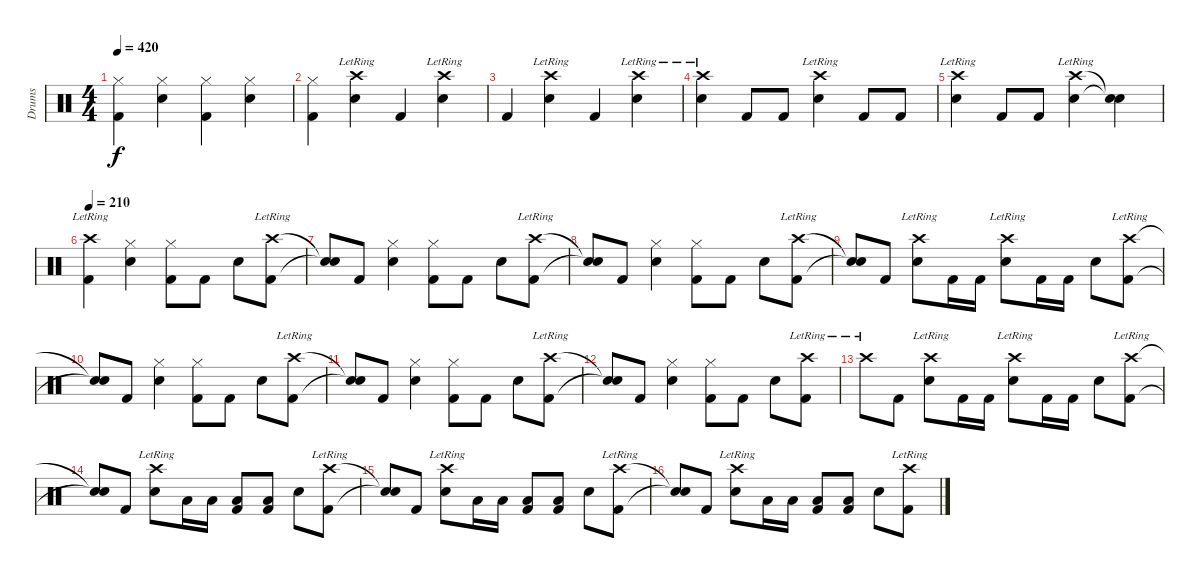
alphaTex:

\track ("Drums" "Drums") {instrument percussion}
\staff {score}
\articulation defaults
\ts (4 4)
\tempo 420
\clef neutral
\ks c
("Hi-Hat (closed)" "Kick (hit) 2").4{dy f} ("Hi-Hat (closed)" "Snare (hit) 2").4 ("Hi-Hat (closed)" "Kick (hit) 2").4 ("Hi-Hat (closed)" "Snare (hit) 2").4 |
("Hi-Hat (closed)" "Kick (hit) 2").4 ("Crash high (hit)"{lr} "Snare (hit) 2").4 "Kick (hit) 2".4 ("Crash high (hit)"{lr} "Snare (hit) 2").4 |
"Kick (hit) 2".4 ("Crash high (hit)"{lr} "Snare (hit) 2").4 "Kick (hit) 2".4 ("Crash high (hit)"{lr} "Snare (hit) 2").4 |
("Crash high (hit)"{lr} "Snare (hit) 2").4 "Kick (hit) 2".8 "Kick (hit) 2".8 ("Crash high (hit)"{lr} "Snare (hit) 2").4 "Kick (hit) 2".8 "Kick (hit) 2".8 |
("Crash high (hit)"{lr} "Snare (hit) 2").4 "Kick (hit) 2".8 "Kick (hit) 2".8 ("Crash high (hit)"{lr} "Snare (hit) 2").4 ("Snare (hit)"{t} "Snare (hit)"{t}).4 |
\tempo 210
("Crash high (hit)"{lr} "Kick (hit) 2").4 ("Hi-Hat (closed)" "Snare (hit) 2").4 ("Hi-Hat (closed)" "Kick (hit) 2").8 "Kick (hit) 2".8 "Snare (hit) 2".8 ("Crash high (hit)"{lr} "Kick (hit) 2").8 |
("Snare (hit)"{t} "Snare (hit)"{t}).8 "Kick (hit) 2".8 ("Hi-Hat (closed)" "Snare (hit) 2").4 ("Hi-Hat (closed)" "Kick (hit) 2").8 "Kick (hit) 2".8 "Snare (hit) 2".8 ("Crash high (hit)"{lr} "Kick (hit) 2").8 |
("Snare (hit)"{t} "Snare (hit)"{t}).8 "Kick (hit) 2".8 ("Hi-Hat (closed)" "Snare (hit) 2").4 ("Hi-Hat (closed)" "Kick (hit) 2").8 "Kick (hit) 2".8 "Snare (hit) 2".8 ("Crash high (hit)"{lr} "Kick (hit) 2").8 |
("Snare (hit)"{t} "Snare (hit)"{t}).8 "Kick (hit) 2".8 ("Crash high (hit)"{lr} "Snare (hit) 2").8 "Kick (hit) 2".16 "Kick (hit) 2".16 ("Crash high (hit)"{lr} "Snare (hit) 2").8 "Kick (hit) 2".16 "Kick (hit) 2".16 "Snare (hit) 2".8 ("Crash high (hit)"{lr} "Kick (hit) 2").8 |
("Snare (hit)"{t} "Snare (hit)"{t}).8 "Kick (hit) 2".8 ("Hi-Hat (closed)" "Snare (hit) 2").4 ("Hi-Hat (closed)" "Kick (hit) 2").8 "Kick (hit) 2".8 "Snare (hit) 2".8 ("Crash high (hit)"{lr} "Kick (hit) 2").8 |
("Snare (hit)"{t} "Snare (hit)"{t}).8 "Kick (hit) 2".8 ("Hi-Hat (closed)" "Snare (hit) 2").4 ("Hi-Hat (closed)" "Kick (hit) 2").8 "Kick (hit) 2".8 "Snare (hit) 2".8 ("Crash high (hit)"{lr} "Kick (hit) 2").8 |
("Snare (hit)"{t} "Snare (hit)"{t}).8 "Kick (hit) 2".8 ("Hi-Hat (closed)" "Snare (hit) 2").4 ("Hi-Hat (closed)" "Kick (hit) 2").8 "Kick (hit) 2".8 "Snare (hit) 2".8 ("Crash high (hit)"{lr} "Kick (hit) 2").8 |
"Crash high (hit)"{lr}.8 "Kick (hit) 2".8 ("Crash high (hit)"{lr} "Snare (hit) 2").8 "Kick (hit) 2".16 "Kick (hit) 2".16 ("Crash high (hit)"{lr} "Snare (hit) 2").8 "Kick (hit) 2".16 "Kick (hit) 2".16 "Snare (hit) 2".8 ("Crash high (hit)"{lr} "Kick (hit) 2").8 |
("Snare (hit)"{t} "Snare (hit)"{t}).8 "Kick (hit) 2".8 ("Crash high (hit)"{lr} "Snare (hit) 2").8 "Low Floor Tom (hit)".16 "Low Floor Tom (hit)".16 ("Low Floor Tom (hit)" "Kick (hit) 2").8 ("Low Floor Tom (hit)" "Kick (hit) 2").8 "Snare (hit) 2".8 ("Crash high (hit)"{lr} "Kick (hit) 2").8 |
("Snare (hit)"{t} "Snare (hit)"{t}).8 "Kick (hit) 2".8 ("Crash high (hit)"{lr} "Snare (hit) 2").8 "Low Floor Tom (hit)".16 "Low Floor Tom (hit)".16 ("Low Floor Tom (hit)" "Kick (hit) 2").8 ("Low Floor Tom (hit)" "Kick (hit) 2").8 "Snare (hit) 2".8 ("Crash high (hit)"{lr} "Kick (hit) 2").8 |
("Snare (hit)"{t} "Snare (hit)"{t}).8 "Kick (hit) 2".8 ("Crash high (hit)"{lr} "Snare (hit) 2").8 "Low Floor Tom (hit)".16 "Low Floor Tom (hit)".16 ("Low Floor Tom (hit)" "Kick (hit) 2").8 ("Low Floor Tom (hit)" "Kick (hit) 2").8 "Snare (hit) 2".8 ("Crash high (hit)"{lr} "Kick (hit) 2").8
